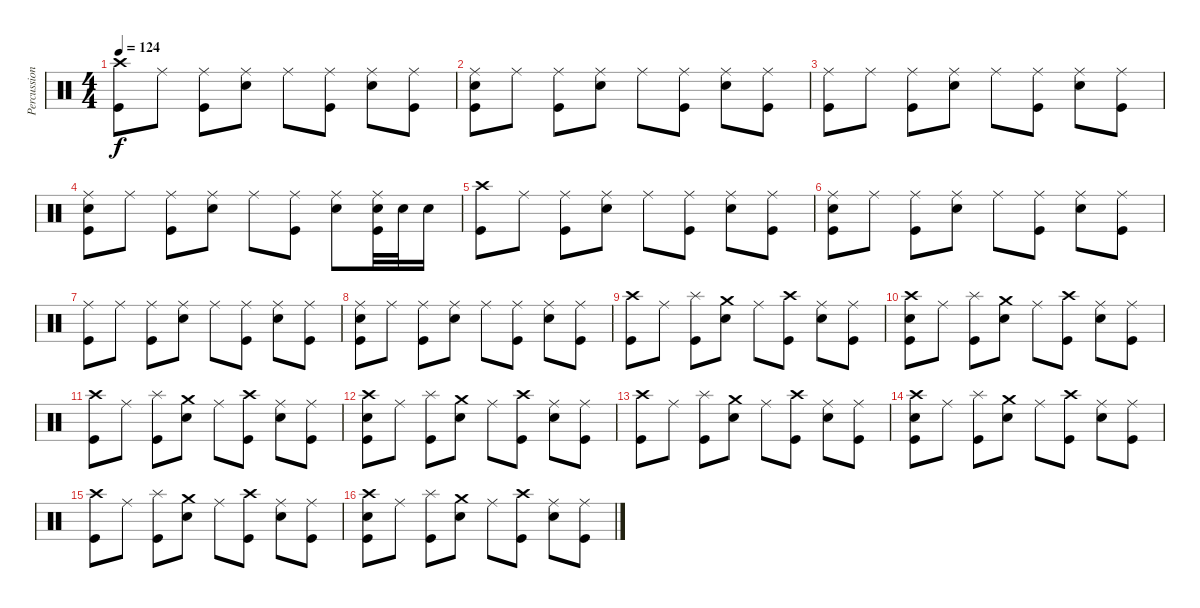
\track ("Percussion" "Percussion") {instrument percussion}
\staff {score}
\articulation defaults
\ts (4 4)
\tempo 124
\clef neutral
\ks c
("Crash high (hit)" "Kick (hit)").8{dy f} "Ride (middle)".8 ("Ride (middle)" "Kick (hit)").8 ("Ride (middle)" "Snare (hit) 2").8 "Ride (middle)".8 ("Ride (middle)" "Kick (hit)").8 ("Ride (middle)" "Snare (hit) 2").8 ("Ride (middle)" "Kick (hit)").8 |
("Ride (middle)" "Snare (hit) 2" "Kick (hit)").8 "Ride (middle)".8 ("Ride (middle)" "Kick (hit)").8 ("Ride (middle)" "Snare (hit) 2").8 "Ride (middle)".8 ("Ride (middle)" "Kick (hit)").8 ("Ride (middle)" "Snare (hit) 2").8 ("Ride (middle)" "Kick (hit)").8 |
("Ride (middle)" "Kick (hit)").8 "Ride (middle)".8 ("Ride (middle)" "Kick (hit)").8 ("Ride (middle)" "Snare (hit) 2").8 "Ride (middle)".8 ("Ride (middle)" "Kick (hit)").8 ("Ride (middle)" "Snare (hit) 2").8 ("Ride (middle)" "Kick (hit)").8 |
("Ride (middle)" "Snare (hit) 2" "Kick (hit)").8 "Ride (middle)".8 ("Ride (middle)" "Kick (hit)").8 ("Ride (middle)" "Snare (hit) 2").8 "Ride (middle)".8 ("Ride (middle)" "Kick (hit)").8 ("Ride (middle)" "Snare (hit) 2").8 ("Ride (middle)" "Snare (hit) 2" "Kick (hit)").32 "Snare (hit) 2".32 "Snare (hit) 2".16 |
("Crash high (hit)" "Kick (hit)").8 "Ride (middle)".8 ("Ride (middle)" "Kick (hit)").8 ("Ride (middle)" "Snare (hit) 2").8 "Ride (middle)".8 ("Ride (middle)" "Kick (hit)").8 ("Ride (middle)" "Snare (hit) 2").8 ("Ride (middle)" "Kick (hit)").8 |
("Ride (middle)" "Snare (hit) 2" "Kick (hit)").8 "Ride (middle)".8 ("Ride (middle)" "Kick (hit)").8 ("Ride (middle)" "Snare (hit) 2").8 "Ride (middle)".8 ("Ride (middle)" "Kick (hit)").8 ("Ride (middle)" "Snare (hit) 2").8 ("Ride (middle)" "Kick (hit)").8 |
("Ride (middle)" "Kick (hit)").8 "Ride (middle)".8 ("Ride (middle)" "Kick (hit)").8 ("Ride (middle)" "Snare (hit) 2").8 "Ride (middle)".8 ("Ride (middle)" "Kick (hit)").8 ("Ride (middle)" "Snare (hit) 2").8 ("Ride (middle)" "Kick (hit)").8 |
("Ride (middle)" "Snare (hit) 2" "Kick (hit)").8 "Ride (middle)".8 ("Ride (middle)" "Kick (hit)").8 ("Ride (middle)" "Snare (hit) 2").8 "Ride (middle)".8 ("Ride (middle)" "Kick (hit)").8 ("Ride (middle)" "Snare (hit) 2").8 ("Ride (middle)" "Kick (hit)").8 |
("Crash high (hit)" "Kick (hit)").8 "Ride (middle)".8 ("Splash (hit)" "Kick (hit)").8 ("Crash medium (hit)" "Snare (hit) 2").8 "Ride (middle)".8 ("Crash high (hit)" "Kick (hit)").8 ("Ride (middle)" "Snare (hit) 2").8 ("Ride (middle)" "Kick (hit)").8 |
("Crash high (hit)" "Snare (hit) 2" "Kick (hit)").8 "Ride (middle)".8 ("Splash (hit)" "Kick (hit)").8 ("Crash medium (hit)" "Snare (hit) 2").8 "Ride (middle)".8 ("Crash high (hit)" "Kick (hit)").8 ("Ride (middle)" "Snare (hit) 2").8 ("Ride (middle)" "Kick (hit)").8 |
("Crash high (hit)" "Kick (hit)").8 "Ride (middle)".8 ("Splash (hit)" "Kick (hit)").8 ("Crash medium (hit)" "Snare (hit) 2").8 "Ride (middle)".8 ("Crash high (hit)" "Kick (hit)").8 ("Ride (middle)" "Snare (hit) 2").8 ("Ride (middle)" "Kick (hit)").8 |
("Crash high (hit)" "Snare (hit) 2" "Kick (hit)").8 "Ride (middle)".8 ("Splash (hit)" "Kick (hit)").8 ("Crash medium (hit)" "Snare (hit) 2").8 "Ride (middle)".8 ("Crash high (hit)" "Kick (hit)").8 ("Ride (middle)" "Snare (hit) 2").8 ("Ride (middle)" "Kick (hit)").8 |
("Crash high (hit)" "Kick (hit)").8 "Ride (middle)".8 ("Splash (hit)" "Kick (hit)").8 ("Crash medium (hit)" "Snare (hit) 2").8 "Ride (middle)".8 ("Crash high (hit)" "Kick (hit)").8 ("Ride (middle)" "Snare (hit) 2").8 ("Ride (middle)" "Kick (hit)").8 |
("Crash high (hit)" "Snare (hit) 2" "Kick (hit)").8 "Ride (middle)".8 ("Splash (hit)" "Kick (hit)").8 ("Crash medium (hit)" "Snare (hit) 2").8 "Ride (middle)".8 ("Crash high (hit)" "Kick (hit)").8 ("Ride (middle)" "Snare (hit) 2").8 ("Ride (middle)" "Kick (hit)").8 |
("Crash high (hit)" "Kick (hit)").8 "Ride (middle)".8 ("Splash (hit)" "Kick (hit)").8 ("Crash medium (hit)" "Snare (hit) 2").8 "Ride (middle)".8 ("Crash high (hit)" "Kick (hit)").8 ("Ride (middle)" "Snare (hit) 2").8 ("Ride (middle)" "Kick (hit)").8 |
("Crash high (hit)" "Snare (hit) 2" "Kick (hit)").8 "Ride (middle)".8 ("Splash (hit)" "Kick (hit)").8 ("Crash medium (hit)" "Snare (hit) 2").8 "Ride (middle)".8 ("Crash high (hit)" "Kick (hit)").8 ("Ride (middle)" "Snare (hit) 2").8 ("Ride (middle)" "Kick (hit)").8
